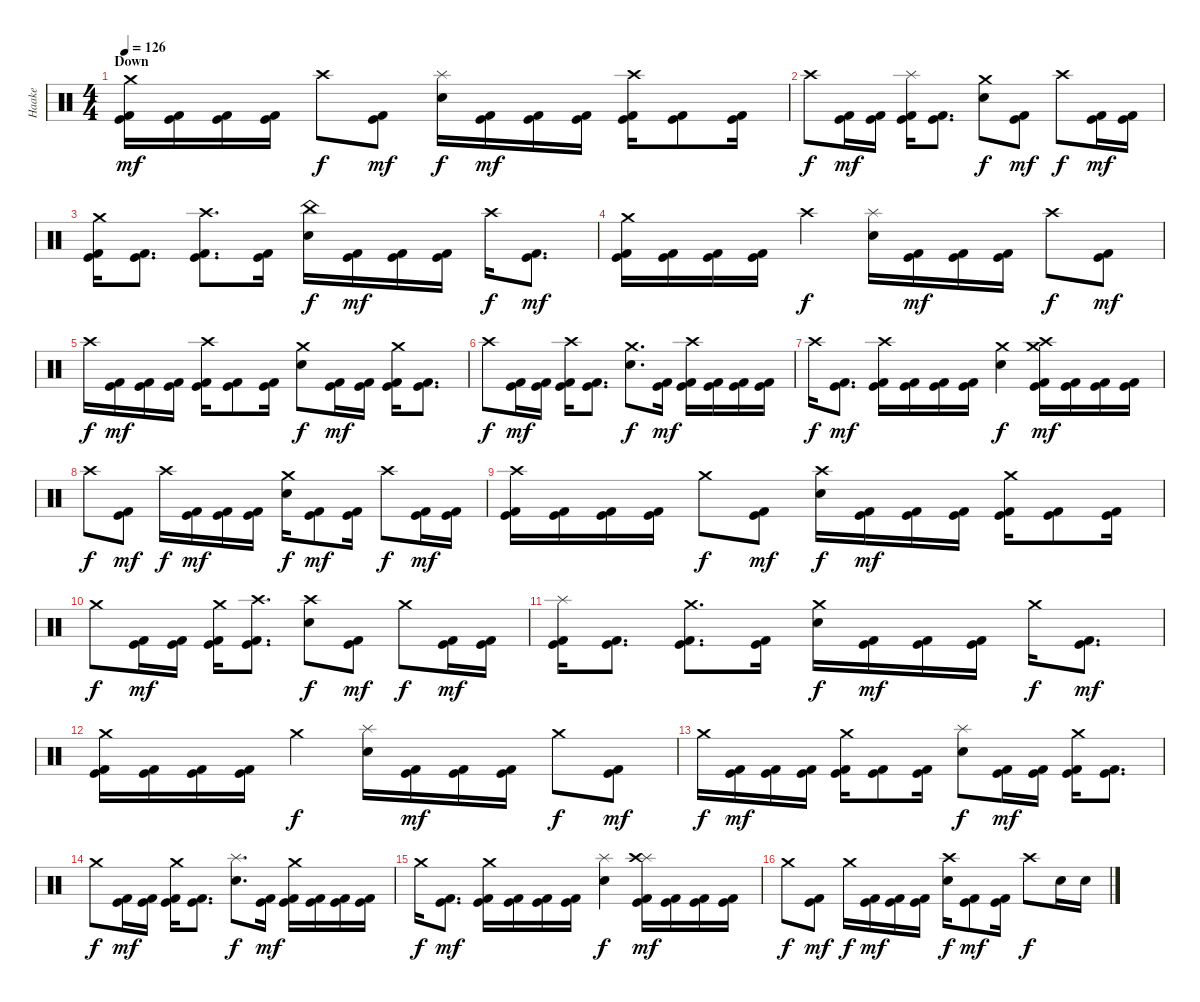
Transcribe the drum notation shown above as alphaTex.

\track ("Haake" "Haake") {instrument percussion}
\staff {score}
\articulation defaults
\ts (4 4)
\section ("" "Down")
\tempo 126
\clef neutral
\ks c
("Crash medium (hit)" "Kick (hit)" "Kick (hit) 2").16{dy mf} ("Kick (hit)" "Kick (hit) 2").16 ("Kick (hit)" "Kick (hit) 2").16 ("Kick (hit)" "Kick (hit) 2").16 "Crash high (hit)".8{dy f} ("Kick (hit)" "Kick (hit) 2").8{dy mf} ("Splash (hit)" "Electric Snare (hit)").16{dy f} ("Kick (hit)" "Kick (hit) 2").16{dy mf} ("Kick (hit)" "Kick (hit) 2").16 ("Kick (hit)" "Kick (hit) 2").16 ("Crash high (hit)" "Kick (hit)" "Kick (hit) 2").16 ("Kick (hit)" "Kick (hit) 2").8 ("Kick (hit)" "Kick (hit) 2").16 |
"Crash high (hit)".8{dy f} ("Kick (hit)" "Kick (hit) 2").16{dy mf} ("Kick (hit)" "Kick (hit) 2").16 ("Splash (hit)" "Kick (hit)" "Kick (hit) 2").16 ("Kick (hit)" "Kick (hit) 2").8{d} ("Crash medium (hit)" "Electric Snare (hit)").8{dy f} ("Kick (hit)" "Kick (hit) 2").8{dy mf} "Crash high (hit)".8{dy f} ("Kick (hit)" "Kick (hit) 2").16{dy mf} ("Kick (hit)" "Kick (hit) 2").16 |
("Crash medium (hit)" "Kick (hit)" "Kick (hit) 2").16 ("Kick (hit)" "Kick (hit) 2").8{d} ("Crash high (hit)" "Kick (hit)" "Kick (hit) 2").8{d} ("Kick (hit)" "Kick (hit) 2").16 ("China (hit)" "Electric Snare (hit)").16{dy f} ("Kick (hit)" "Kick (hit) 2").16{dy mf} ("Kick (hit)" "Kick (hit) 2").16 ("Kick (hit)" "Kick (hit) 2").16 "Crash high (hit)".16{dy f} ("Kick (hit)" "Kick (hit) 2").8{d dy mf} |
("Crash medium (hit)" "Kick (hit)" "Kick (hit) 2").16 ("Kick (hit)" "Kick (hit) 2").16 ("Kick (hit)" "Kick (hit) 2").16 ("Kick (hit)" "Kick (hit) 2").16 "Crash high (hit)".4{dy f} ("Splash (hit)" "Electric Snare (hit)").16 ("Kick (hit)" "Kick (hit) 2").16{dy mf} ("Kick (hit)" "Kick (hit) 2").16 ("Kick (hit)" "Kick (hit) 2").16 "Crash high (hit)".8{dy f} ("Kick (hit)" "Kick (hit) 2").8{dy mf} |
"Crash high (hit)".16{dy f} ("Kick (hit)" "Kick (hit) 2").16{dy mf} ("Kick (hit)" "Kick (hit) 2").16 ("Kick (hit)" "Kick (hit) 2").16 ("Crash high (hit)" "Kick (hit)" "Kick (hit) 2").16 ("Kick (hit)" "Kick (hit) 2").8 ("Kick (hit)" "Kick (hit) 2").16 ("Crash medium (hit)" "Electric Snare (hit)").8{dy f} ("Kick (hit)" "Kick (hit) 2").16{dy mf} ("Kick (hit)" "Kick (hit) 2").16 ("Crash medium (hit)" "Kick (hit)" "Kick (hit) 2").16 ("Kick (hit)" "Kick (hit) 2").8{d} |
"Crash high (hit)".8{dy f} ("Kick (hit)" "Kick (hit) 2").16{dy mf} ("Kick (hit)" "Kick (hit) 2").16 ("Crash high (hit)" "Kick (hit)" "Kick (hit) 2").16 ("Kick (hit)" "Kick (hit) 2").8{d} ("Crash medium (hit)" "Electric Snare (hit)").8{d dy f} ("Kick (hit)" "Kick (hit) 2").16{dy mf} ("Crash high (hit)" "Kick (hit)" "Kick (hit) 2").16 ("Kick (hit)" "Kick (hit) 2").16 ("Kick (hit)" "Kick (hit) 2").16 ("Kick (hit)" "Kick (hit) 2").16 |
"Crash high (hit)".16{dy f} ("Kick (hit)" "Kick (hit) 2").8{d dy mf} ("Crash high (hit)" "Kick (hit)" "Kick (hit) 2").16 ("Kick (hit)" "Kick (hit) 2").16 ("Kick (hit)" "Kick (hit) 2").16 ("Kick (hit)" "Kick (hit) 2").16 ("Crash medium (hit)" "Electric Snare (hit)").4{dy f} ("Crash medium (hit)" "Crash high (hit)" "Kick (hit)" "Kick (hit) 2").16{dy mf} ("Kick (hit)" "Kick (hit) 2").16 ("Kick (hit)" "Kick (hit) 2").16 ("Kick (hit)" "Kick (hit) 2").16 |
"Crash high (hit)".8{dy f} ("Kick (hit)" "Kick (hit) 2").8{dy mf} "Crash high (hit)".16{dy f} ("Kick (hit)" "Kick (hit) 2").16{dy mf} ("Kick (hit)" "Kick (hit) 2").16 ("Kick (hit)" "Kick (hit) 2").16 ("Crash medium (hit)" "Electric Snare (hit)").16{dy f} ("Kick (hit)" "Kick (hit) 2").8{dy mf} ("Kick (hit)" "Kick (hit) 2").16 "Crash high (hit)".8{dy f} ("Kick (hit)" "Kick (hit) 2").16{dy mf} ("Kick (hit)" "Kick (hit) 2").16 |
("Crash high (hit)" "Kick (hit)" "Kick (hit) 2").16 ("Kick (hit)" "Kick (hit) 2").16 ("Kick (hit)" "Kick (hit) 2").16 ("Kick (hit)" "Kick (hit) 2").16 "Crash medium (hit)".8{dy f} ("Kick (hit)" "Kick (hit) 2").8{dy mf} ("Crash high (hit)" "Electric Snare (hit)").16{dy f} ("Kick (hit)" "Kick (hit) 2").16{dy mf} ("Kick (hit)" "Kick (hit) 2").16 ("Kick (hit)" "Kick (hit) 2").16 ("Crash medium (hit)" "Kick (hit)" "Kick (hit) 2").16 ("Kick (hit)" "Kick (hit) 2").8 ("Kick (hit)" "Kick (hit) 2").16 |
"Crash medium (hit)".8{dy f} ("Kick (hit)" "Kick (hit) 2").16{dy mf} ("Kick (hit)" "Kick (hit) 2").16 ("Crash medium (hit)" "Kick (hit)" "Kick (hit) 2").16 ("Crash high (hit)" "Kick (hit)" "Kick (hit) 2").8{d} ("Crash high (hit)" "Electric Snare (hit)").8{dy f} ("Kick (hit)" "Kick (hit) 2").8{dy mf} "Crash medium (hit)".8{dy f} ("Kick (hit)" "Kick (hit) 2").16{dy mf} ("Kick (hit)" "Kick (hit) 2").16 |
("Splash (hit)" "Kick (hit)" "Kick (hit) 2").16 ("Kick (hit)" "Kick (hit) 2").8{d} ("Crash medium (hit)" "Kick (hit)" "Kick (hit) 2").8{d} ("Kick (hit)" "Kick (hit) 2").16 ("Crash medium (hit)" "Electric Snare (hit)").16{dy f} ("Kick (hit)" "Kick (hit) 2").16{dy mf} ("Kick (hit)" "Kick (hit) 2").16 ("Kick (hit)" "Kick (hit) 2").16 "Crash medium (hit)".16{dy f} ("Kick (hit)" "Kick (hit) 2").8{d dy mf} |
("Crash medium (hit)" "Kick (hit)" "Kick (hit) 2").16 ("Kick (hit)" "Kick (hit) 2").16 ("Kick (hit)" "Kick (hit) 2").16 ("Kick (hit)" "Kick (hit) 2").16 "Crash medium (hit)".4{dy f} ("Splash (hit)" "Electric Snare (hit)").16 ("Kick (hit)" "Kick (hit) 2").16{dy mf} ("Kick (hit)" "Kick (hit) 2").16 ("Kick (hit)" "Kick (hit) 2").16 "Crash medium (hit)".8{dy f} ("Kick (hit)" "Kick (hit) 2").8{dy mf} |
"Crash medium (hit)".16{dy f} ("Kick (hit)" "Kick (hit) 2").16{dy mf} ("Kick (hit)" "Kick (hit) 2").16 ("Kick (hit)" "Kick (hit) 2").16 ("Crash medium (hit)" "Kick (hit)" "Kick (hit) 2").16 ("Kick (hit)" "Kick (hit) 2").8 ("Kick (hit)" "Kick (hit) 2").16 ("Splash (hit)" "Electric Snare (hit)").8{dy f} ("Kick (hit)" "Kick (hit) 2").16{dy mf} ("Kick (hit)" "Kick (hit) 2").16 ("Crash medium (hit)" "Kick (hit)" "Kick (hit) 2").16 ("Kick (hit)" "Kick (hit) 2").8{d} |
"Crash medium (hit)".8{dy f} ("Kick (hit)" "Kick (hit) 2").16{dy mf} ("Kick (hit)" "Kick (hit) 2").16 ("Crash medium (hit)" "Kick (hit)" "Kick (hit) 2").16 ("Kick (hit)" "Kick (hit) 2").8{d} ("Splash (hit)" "Electric Snare (hit)").8{d dy f} ("Kick (hit)" "Kick (hit) 2").16{dy mf} ("Crash medium (hit)" "Kick (hit)" "Kick (hit) 2").16 ("Kick (hit)" "Kick (hit) 2").16 ("Kick (hit)" "Kick (hit) 2").16 ("Kick (hit)" "Kick (hit) 2").16 |
"Crash medium (hit)".16{dy f} ("Kick (hit)" "Kick (hit) 2").8{d dy mf} ("Crash medium (hit)" "Kick (hit)" "Kick (hit) 2").16 ("Kick (hit)" "Kick (hit) 2").16 ("Kick (hit)" "Kick (hit) 2").16 ("Kick (hit)" "Kick (hit) 2").16 ("Splash (hit)" "Electric Snare (hit)").4{dy f} ("Splash (hit)" "Crash high (hit)" "Kick (hit)" "Kick (hit) 2").16{dy mf} ("Kick (hit)" "Kick (hit) 2").16 ("Kick (hit)" "Kick (hit) 2").16 ("Kick (hit)" "Kick (hit) 2").16 |
"Crash medium (hit)".8{dy f} ("Kick (hit)" "Kick (hit) 2").8{dy mf} "Crash medium (hit)".16{dy f} ("Kick (hit)" "Kick (hit) 2").16{dy mf} ("Kick (hit)" "Kick (hit) 2").16 ("Kick (hit)" "Kick (hit) 2").16 ("Crash high (hit)" "Electric Snare (hit)").16{dy f} ("Kick (hit)" "Kick (hit) 2").8{dy mf} ("Kick (hit)" "Kick (hit) 2").16 "Crash high (hit)".8{dy f} "Electric Snare (hit)".16 "Electric Snare (hit)".16
